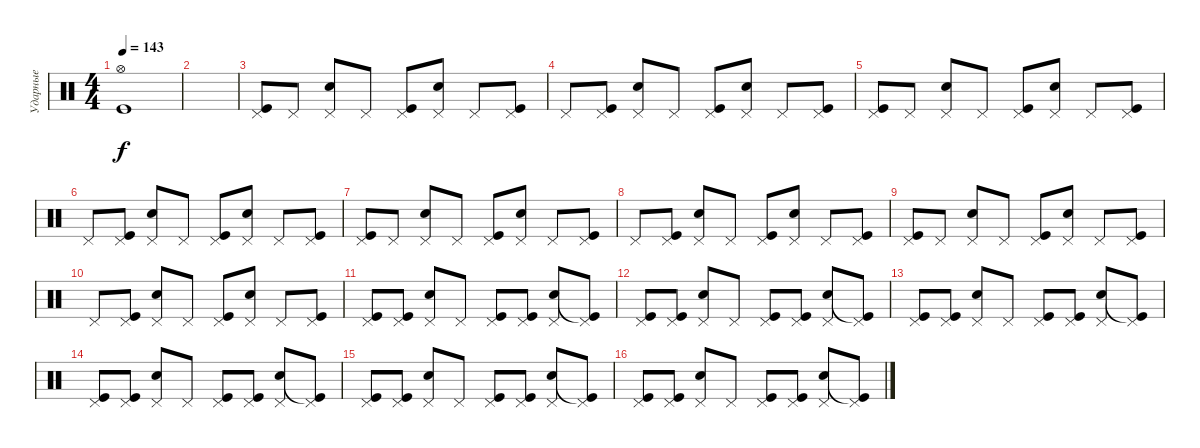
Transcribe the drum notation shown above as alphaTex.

\track ("Ударные" "Ударные") {instrument percussion}
\staff {score}
\articulation defaults
\ts (4 4)
\tempo 143
\clef neutral
\ks c
("Hi-Hat (open)" "Kick (hit)").1{dy f} |
|
("Pedal Hi-Hat (hit)" "Kick (hit)").8 "Pedal Hi-Hat (hit)".8 ("Pedal Hi-Hat (hit)" "Electric Snare (hit)").8 "Pedal Hi-Hat (hit)".8 ("Pedal Hi-Hat (hit)" "Kick (hit)").8 ("Pedal Hi-Hat (hit)" "Electric Snare (hit)").8 "Pedal Hi-Hat (hit)".8 ("Pedal Hi-Hat (hit)" "Kick (hit)").8 |
"Pedal Hi-Hat (hit)".8 ("Pedal Hi-Hat (hit)" "Kick (hit)").8 ("Pedal Hi-Hat (hit)" "Electric Snare (hit)").8 "Pedal Hi-Hat (hit)".8 ("Pedal Hi-Hat (hit)" "Kick (hit)").8 ("Pedal Hi-Hat (hit)" "Electric Snare (hit)").8 "Pedal Hi-Hat (hit)".8 ("Pedal Hi-Hat (hit)" "Kick (hit)").8 |
("Pedal Hi-Hat (hit)" "Kick (hit)").8 "Pedal Hi-Hat (hit)".8 ("Pedal Hi-Hat (hit)" "Electric Snare (hit)").8 "Pedal Hi-Hat (hit)".8 ("Pedal Hi-Hat (hit)" "Kick (hit)").8 ("Pedal Hi-Hat (hit)" "Electric Snare (hit)").8 "Pedal Hi-Hat (hit)".8 ("Pedal Hi-Hat (hit)" "Kick (hit)").8 |
"Pedal Hi-Hat (hit)".8 ("Pedal Hi-Hat (hit)" "Kick (hit)").8 ("Pedal Hi-Hat (hit)" "Electric Snare (hit)").8 "Pedal Hi-Hat (hit)".8 ("Pedal Hi-Hat (hit)" "Kick (hit)").8 ("Pedal Hi-Hat (hit)" "Electric Snare (hit)").8 "Pedal Hi-Hat (hit)".8 ("Pedal Hi-Hat (hit)" "Kick (hit)").8 |
("Pedal Hi-Hat (hit)" "Kick (hit)").8 "Pedal Hi-Hat (hit)".8 ("Pedal Hi-Hat (hit)" "Electric Snare (hit)").8 "Pedal Hi-Hat (hit)".8 ("Pedal Hi-Hat (hit)" "Kick (hit)").8 ("Pedal Hi-Hat (hit)" "Electric Snare (hit)").8 "Pedal Hi-Hat (hit)".8 ("Pedal Hi-Hat (hit)" "Kick (hit)").8 |
"Pedal Hi-Hat (hit)".8 ("Pedal Hi-Hat (hit)" "Kick (hit)").8 ("Pedal Hi-Hat (hit)" "Electric Snare (hit)").8 "Pedal Hi-Hat (hit)".8 ("Pedal Hi-Hat (hit)" "Kick (hit)").8 ("Pedal Hi-Hat (hit)" "Electric Snare (hit)").8 "Pedal Hi-Hat (hit)".8 ("Pedal Hi-Hat (hit)" "Kick (hit)").8 |
("Pedal Hi-Hat (hit)" "Kick (hit)").8 "Pedal Hi-Hat (hit)".8 ("Pedal Hi-Hat (hit)" "Electric Snare (hit)").8 "Pedal Hi-Hat (hit)".8 ("Pedal Hi-Hat (hit)" "Kick (hit)").8 ("Pedal Hi-Hat (hit)" "Electric Snare (hit)").8 "Pedal Hi-Hat (hit)".8 ("Pedal Hi-Hat (hit)" "Kick (hit)").8 |
"Pedal Hi-Hat (hit)".8 ("Pedal Hi-Hat (hit)" "Kick (hit)").8 ("Pedal Hi-Hat (hit)" "Electric Snare (hit)").8 "Pedal Hi-Hat (hit)".8 ("Pedal Hi-Hat (hit)" "Kick (hit)").8 ("Pedal Hi-Hat (hit)" "Electric Snare (hit)").8 "Pedal Hi-Hat (hit)".8 ("Pedal Hi-Hat (hit)" "Kick (hit)").8 |
("Pedal Hi-Hat (hit)" "Kick (hit)").8 ("Pedal Hi-Hat (hit)" "Kick (hit)").8 ("Pedal Hi-Hat (hit)" "Electric Snare (hit)").8 "Pedal Hi-Hat (hit)".8 ("Pedal Hi-Hat (hit)" "Kick (hit)").8 ("Pedal Hi-Hat (hit)" "Kick (hit)").8 ("Pedal Hi-Hat (hit)" "Electric Snare (hit)").8 ("Pedal Hi-Hat (hit)" "Kick (hit)"{t}).8 |
("Pedal Hi-Hat (hit)" "Kick (hit)").8 ("Pedal Hi-Hat (hit)" "Kick (hit)").8 ("Pedal Hi-Hat (hit)" "Electric Snare (hit)").8 "Pedal Hi-Hat (hit)".8 ("Pedal Hi-Hat (hit)" "Kick (hit)").8 ("Pedal Hi-Hat (hit)" "Kick (hit)").8 ("Pedal Hi-Hat (hit)" "Electric Snare (hit)").8 ("Pedal Hi-Hat (hit)" "Kick (hit)"{t}).8 |
("Pedal Hi-Hat (hit)" "Kick (hit)").8 ("Pedal Hi-Hat (hit)" "Kick (hit)").8 ("Pedal Hi-Hat (hit)" "Electric Snare (hit)").8 "Pedal Hi-Hat (hit)".8 ("Pedal Hi-Hat (hit)" "Kick (hit)").8 ("Pedal Hi-Hat (hit)" "Kick (hit)").8 ("Pedal Hi-Hat (hit)" "Electric Snare (hit)").8 ("Pedal Hi-Hat (hit)" "Kick (hit)"{t}).8 |
("Pedal Hi-Hat (hit)" "Kick (hit)").8 ("Pedal Hi-Hat (hit)" "Kick (hit)").8 ("Pedal Hi-Hat (hit)" "Electric Snare (hit)").8 "Pedal Hi-Hat (hit)".8 ("Pedal Hi-Hat (hit)" "Kick (hit)").8 ("Pedal Hi-Hat (hit)" "Kick (hit)").8 ("Pedal Hi-Hat (hit)" "Electric Snare (hit)").8 ("Pedal Hi-Hat (hit)" "Kick (hit)"{t}).8 |
("Pedal Hi-Hat (hit)" "Kick (hit)").8 ("Pedal Hi-Hat (hit)" "Kick (hit)").8 ("Pedal Hi-Hat (hit)" "Electric Snare (hit)").8 "Pedal Hi-Hat (hit)".8 ("Pedal Hi-Hat (hit)" "Kick (hit)").8 ("Pedal Hi-Hat (hit)" "Kick (hit)").8 ("Pedal Hi-Hat (hit)" "Electric Snare (hit)").8 ("Pedal Hi-Hat (hit)" "Kick (hit)"{t}).8 |
("Pedal Hi-Hat (hit)" "Kick (hit)").8 ("Pedal Hi-Hat (hit)" "Kick (hit)").8 ("Pedal Hi-Hat (hit)" "Electric Snare (hit)").8 "Pedal Hi-Hat (hit)".8 ("Pedal Hi-Hat (hit)" "Kick (hit)").8 ("Pedal Hi-Hat (hit)" "Kick (hit)").8 ("Pedal Hi-Hat (hit)" "Electric Snare (hit)").8 ("Pedal Hi-Hat (hit)" "Kick (hit)"{t}).8
